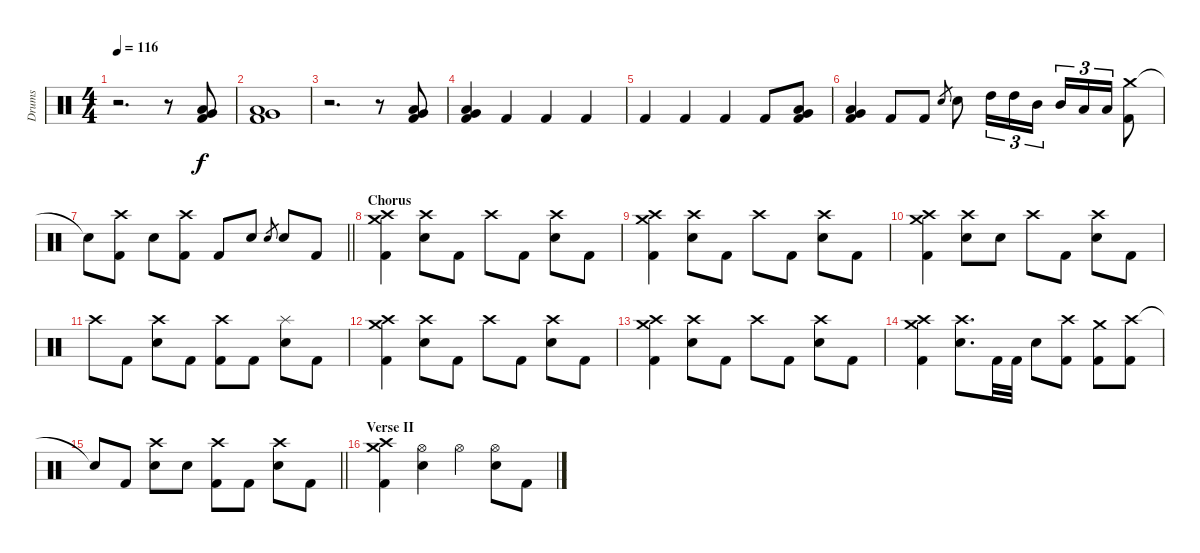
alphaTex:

\track ("Drums" "Drums") {instrument percussion}
\staff {score}
\articulation defaults
\ts (4 4)
\tempo 116
\clef neutral
\ks c
r.2{d dy f} r.8 ("Very Low Tom (hit)" "Low Floor Tom (hit)" "Kick (hit) 2").8 |
("Very Low Tom (hit)" "Low Floor Tom (hit)" "Kick (hit) 2").1 |
r.2{d} r.8 ("Very Low Tom (hit)" "Low Floor Tom (hit)" "Kick (hit) 2").8 |
("Very Low Tom (hit)" "Low Floor Tom (hit)" "Kick (hit) 2").4 "Kick (hit) 2".4 "Kick (hit) 2".4 "Kick (hit) 2".4 |
"Kick (hit) 2".4 "Kick (hit) 2".4 "Kick (hit) 2".4 "Kick (hit) 2".8 ("Very Low Tom (hit)" "Low Floor Tom (hit)" "Kick (hit) 2").8 |
("Very Low Tom (hit)" "Low Floor Tom (hit)" "Kick (hit) 2").4 "Kick (hit) 2".8 "Kick (hit) 2".8 "Electric Snare (hit)".8{gr} "Electric Snare (hit)".8 "High Tom (hit)".16{tu (3 2)} "High Tom (hit)".16{tu (3 2)} "Mid Tom (hit)".16{tu (3 2)} "Mid Tom (hit)".16{tu (3 2)} "Low Tom (hit)".16{tu (3 2)} "Low Tom (hit)".16{tu (3 2)} ("Crash medium (hit)" "Kick (hit) 2").8 |
\barLineRight lightlight "Snare (hit)"{t}.8
("Crash high (hit)" "Kick (hit) 2").8 "Electric Snare (hit)".8 ("Crash high (hit)" "Kick (hit) 2").8 "Kick (hit) 2".8 "Electric Snare (hit)".8 "Electric Snare (hit)".8{gr} "Electric Snare (hit)".8 "Kick (hit) 2".8 |
\section ("" "Chorus")
("Crash medium (hit)" "Crash high (hit)" "Kick (hit) 2").4 ("Crash high (hit)" "Electric Snare (hit)").8 "Kick (hit) 2".8 "Crash high (hit)".8 "Kick (hit) 2".8 ("Crash high (hit)" "Electric Snare (hit)").8 "Kick (hit) 2".8 |
("Crash medium (hit)" "Crash high (hit)" "Kick (hit) 2").4 ("Crash high (hit)" "Electric Snare (hit)").8 "Kick (hit) 2".8 "Crash high (hit)".8 "Kick (hit) 2".8 ("Crash high (hit)" "Electric Snare (hit)").8 "Kick (hit) 2".8 |
("Crash medium (hit)" "Crash high (hit)" "Kick (hit) 2").4 ("Crash high (hit)" "Electric Snare (hit)").8 "Electric Snare (hit)".8 "Crash high (hit)".8 "Kick (hit) 2".8 ("Crash high (hit)" "Electric Snare (hit)").8 "Kick (hit) 2".8 |
"Crash high (hit)".8 "Kick (hit) 2".8 ("Crash high (hit)" "Electric Snare (hit)").8 "Kick (hit) 2".8 ("Crash high (hit)" "Kick (hit) 2").8 "Kick (hit) 2".8 ("Splash (hit)" "Electric Snare (hit)").8 "Kick (hit) 2".8 |
("Crash medium (hit)" "Crash high (hit)" "Kick (hit) 2").4 ("Crash high (hit)" "Electric Snare (hit)").8 "Kick (hit) 2".8 "Crash high (hit)".8 "Kick (hit) 2".8 ("Crash high (hit)" "Electric Snare (hit)").8 "Kick (hit) 2".8 |
("Crash medium (hit)" "Crash high (hit)" "Kick (hit) 2").4 ("Crash high (hit)" "Electric Snare (hit)").8 "Kick (hit) 2".8 "Crash high (hit)".8 "Kick (hit) 2".8 ("Crash high (hit)" "Electric Snare (hit)").8 "Kick (hit) 2".8 |
("Crash medium (hit)" "Crash high (hit)" "Kick (hit) 2").4 ("Crash high (hit)" "Electric Snare (hit)").8{d} "Kick (hit) 2".32 "Kick (hit) 2".32 "Electric Snare (hit)".8 ("Crash high (hit)" "Kick (hit) 2").8 ("Crash medium (hit)" "Kick (hit) 2").8 ("Crash high (hit)" "Kick (hit) 2").8 |
\barLineRight lightlight "Snare (hit)"{t}.8 "Kick (hit) 2".8
("Crash high (hit)" "Electric Snare (hit)").8 "Electric Snare (hit)".8 ("Crash high (hit)" "Kick (hit) 2").8 "Kick (hit) 2".8 ("Crash high (hit)" "Electric Snare (hit)").8 "Kick (hit) 2".8 |
\section ("" "Verse II")
("Crash medium (hit)" "Crash high (hit)" "Kick (hit) 2").4 ("Hi-Hat (open)" "Electric Snare (hit)").4 "Hi-Hat (open)".4 ("Hi-Hat (open)" "Electric Snare (hit)").8 "Kick (hit) 2".8
